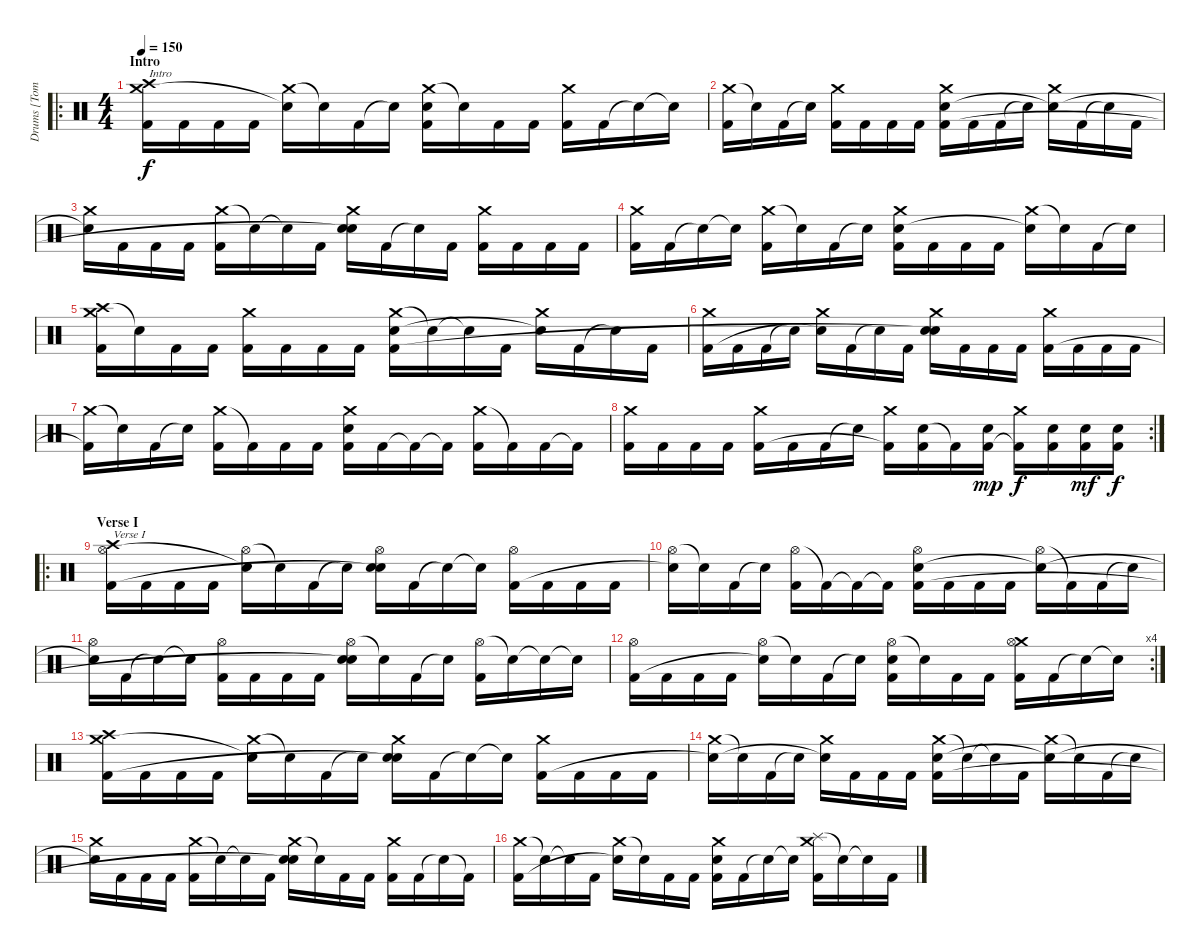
\track ("Drums [Tomas Haake]" "Drums [Tom") {instrument percussion}
\staff {score}
\articulation defaults
\ro
\ts (4 4)
\section ("" "Intro")
\tempo 150
\clef neutral
\ks c
("Crash high (hit)" "Crash medium (hit)" "Kick (hit) 2").16{txt "Intro" dy f} "Kick (hit) 2".16 "Kick (hit) 2".16 "Kick (hit) 2".16 ("Crash medium (hit)" "Snare (hit)"{t}).16 "Snare (hit)"{t}.16 "Kick (hit) 2".16 "Snare (hit)"{t}.16 ("Crash medium (hit)" "Electric Snare (hit)" "Kick (hit) 2").16 "Snare (hit)"{t}.16 "Kick (hit) 2".16 "Kick (hit) 2".16 ("Crash medium (hit)" "Kick (hit) 2").16 "Kick (hit) 2".16 "Snare (hit)"{t}.16 "Snare (hit)"{t}.16 |
("Crash medium (hit)" "Kick (hit) 2").16 "Snare (hit)"{t}.16 "Kick (hit) 2".16 "Snare (hit)"{t}.16 ("Crash medium (hit)" "Kick (hit) 2").16 "Kick (hit) 2".16 "Kick (hit) 2".16 "Kick (hit) 2".16 ("Crash medium (hit)" "Electric Snare (hit)" "Kick (hit) 2").16 "Kick (hit) 2".16 "Kick (hit) 2".16 "Snare (hit)"{t}.16 ("Crash medium (hit)" "Snare (hit)"{t}).16 "Kick (hit) 2".16 "Snare (hit)"{t}.16 "Kick (hit) 2".16 |
("Crash medium (hit)" "Snare (hit)"{t}).16 "Kick (hit) 2".16 "Kick (hit) 2".16 "Kick (hit) 2".16 ("Crash medium (hit)" "Kick (hit) 2").16 "Snare (hit)"{t}.16 "Snare (hit)"{t}.16 "Kick (hit) 2".16 ("Crash medium (hit)" "Electric Snare (hit)" "Snare (hit)"{t}).16 "Kick (hit) 2".16 "Snare (hit)"{t}.16 "Kick (hit) 2".16 ("Crash medium (hit)" "Kick (hit) 2").16 "Kick (hit) 2".16 "Kick (hit) 2".16 "Kick (hit) 2".16 |
("Crash medium (hit)" "Kick (hit) 2").16 "Kick (hit) 2".16 "Snare (hit)"{t}.16 "Snare (hit)"{t}.16 ("Crash medium (hit)" "Kick (hit) 2").16 "Snare (hit)"{t}.16 "Kick (hit) 2".16 "Snare (hit)"{t}.16 ("Crash medium (hit)" "Electric Snare (hit)" "Kick (hit) 2").16 "Kick (hit) 2".16 "Kick (hit) 2".16 "Kick (hit) 2".16 ("Crash medium (hit)" "Snare (hit)"{t}).16 "Snare (hit)"{t}.16 "Kick (hit) 2".16 "Snare (hit)"{t}.16 |
("Crash high (hit)" "Crash medium (hit)" "Kick (hit) 2").16 "Snare (hit)"{t}.16 "Kick (hit) 2".16 "Kick (hit) 2".16 ("Crash medium (hit)" "Kick (hit) 2").16 "Kick (hit) 2".16 "Kick (hit) 2".16 "Kick (hit) 2".16 ("Crash medium (hit)" "Electric Snare (hit)" "Kick (hit) 2").16 "Snare (hit)"{t}.16 "Snare (hit)"{t}.16 "Kick (hit) 2".16 ("Crash medium (hit)" "Snare (hit)"{t}).16 "Kick (hit) 2".16 "Snare (hit)"{t}.16 "Kick (hit) 2".16 |
("Crash medium (hit)" "Kick (hit) 2").16 "Kick (hit) 2".16 "Kick (hit) 2".16 "Snare (hit)"{t}.16 ("Crash medium (hit)" "Snare (hit)"{t}).16 "Kick (hit) 2".16 "Snare (hit)"{t}.16 "Kick (hit) 2".16 ("Crash medium (hit)" "Electric Snare (hit)" "Snare (hit)"{t}).16 "Kick (hit) 2".16 "Kick (hit) 2".16 "Kick (hit) 2".16 ("Crash medium (hit)" "Kick (hit) 2").16 "Kick (hit) 2".16 "Kick (hit) 2".16 "Kick (hit) 2".16 |
("Crash medium (hit)" "Kick (hit) 2"{t}).16 "Snare (hit)"{t}.16 "Kick (hit) 2".16 "Snare (hit)"{t}.16 ("Crash medium (hit)" "Kick (hit) 2").16 "Kick (hit) 2"{t}.16 "Kick (hit) 2".16 "Kick (hit) 2".16 ("Crash medium (hit)" "Electric Snare (hit)" "Kick (hit) 2").16 "Kick (hit) 2".16 "Kick (hit) 2"{t}.16 "Kick (hit) 2"{t}.16 ("Crash medium (hit)" "Kick (hit) 2").16 "Kick (hit) 2"{t}.16 "Kick (hit) 2".16 "Kick (hit) 2"{t}.16 |
\rc 2
("Crash medium (hit)" "Kick (hit) 2").16 "Kick (hit) 2".16 "Kick (hit) 2".16 "Kick (hit) 2".16 ("Crash medium (hit)" "Kick (hit) 2").16 "Kick (hit) 2".16 "Kick (hit) 2".16 "Snare (hit)"{t}.16 ("Crash medium (hit)" "Kick (hit) 2"{t}).16 ("Electric Snare (hit)" "Kick (hit) 2").16 "Kick (hit) 2"{t}.16 ("Electric Snare (hit)" "Kick (hit) 2").16{dy mp} ("Crash medium (hit)" "Kick (hit) 2"{t}).16{dy f} ("Electric Snare (hit)" "Kick (hit) 2").16 ("Electric Snare (hit)" "Kick (hit) 2").16{dy mf} ("Electric Snare (hit)" "Kick (hit) 2").16{dy f} |
\ro
\section ("" "Verse I")
("Crash high (hit)" "Hi-Hat (open)" "Kick (hit) 2").16{txt "Verse I"} "Kick (hit) 2".16 "Kick (hit) 2".16 "Kick (hit) 2".16 ("Hi-Hat (open)" "Snare (hit)"{t}).16 "Snare (hit)"{t}.16 "Kick (hit) 2".16 "Snare (hit)"{t}.16 ("Hi-Hat (open)" "Electric Snare (hit)" "Snare (hit)"{t}).16 "Kick (hit) 2".16 "Snare (hit)"{t}.16 "Snare (hit)"{t}.16 ("Hi-Hat (open)" "Kick (hit) 2").16 "Kick (hit) 2".16 "Kick (hit) 2".16 "Kick (hit) 2".16 |
("Hi-Hat (open)" "Snare (hit)"{t}).16 "Snare (hit)"{t}.16 "Kick (hit) 2".16 "Snare (hit)"{t}.16 ("Hi-Hat (open)" "Kick (hit) 2").16 "Kick (hit) 2"{t}.16 "Kick (hit) 2"{t}.16 "Kick (hit) 2"{t}.16 ("Hi-Hat (open)" "Electric Snare (hit)" "Kick (hit) 2").16 "Kick (hit) 2".16 "Kick (hit) 2".16 "Kick (hit) 2".16 ("Hi-Hat (open)" "Snare (hit)"{t}).16 "Kick (hit) 2"{t}.16 "Kick (hit) 2".16 "Snare (hit)"{t}.16 |
("Hi-Hat (open)" "Snare (hit)"{t}).16 "Kick (hit) 2".16 "Snare (hit)"{t}.16 "Snare (hit)"{t}.16 ("Hi-Hat (open)" "Kick (hit) 2").16 "Kick (hit) 2".16 "Kick (hit) 2".16 "Kick (hit) 2".16 ("Hi-Hat (open)" "Electric Snare (hit)" "Snare (hit)"{t}).16 "Snare (hit)"{t}.16 "Kick (hit) 2".16 "Snare (hit)"{t}.16 ("Hi-Hat (open)" "Kick (hit) 2").16 "Snare (hit)"{t}.16 "Snare (hit)"{t}.16 "Snare (hit)"{t}.16 |
\rc 4
("Hi-Hat (open)" "Kick (hit) 2").16 "Kick (hit) 2".16 "Kick (hit) 2".16 "Kick (hit) 2".16 ("Hi-Hat (open)" "Snare (hit)"{t}).16 "Snare (hit)"{t}.16 "Kick (hit) 2".16 "Snare (hit)"{t}.16 ("Hi-Hat (open)" "Electric Snare (hit)" "Kick (hit) 2").16 "Snare (hit)"{t}.16 "Kick (hit) 2".16 "Kick (hit) 2".16 ("Crash medium (hit)" "Hi-Hat (open)" "Kick (hit) 2").16 "Kick (hit) 2".16 "Snare (hit)"{t}.16 "Snare (hit)"{t}.16 |
("Crash high (hit)" "Crash medium (hit)" "Kick (hit) 2").16 "Kick (hit) 2".16 "Kick (hit) 2".16 "Kick (hit) 2".16 ("Crash medium (hit)" "Snare (hit)"{t}).16 "Snare (hit)"{t}.16 "Kick (hit) 2".16 "Snare (hit)"{t}.16 ("Crash medium (hit)" "Electric Snare (hit)" "Snare (hit)"{t}).16 "Kick (hit) 2".16 "Snare (hit)"{t}.16 "Snare (hit)"{t}.16 ("Crash medium (hit)" "Kick (hit) 2").16 "Kick (hit) 2".16 "Kick (hit) 2".16 "Kick (hit) 2".16 |
("Crash medium (hit)" "Snare (hit)"{t}).16 "Snare (hit)"{t}.16 "Kick (hit) 2".16 "Snare (hit)"{t}.16 ("Crash medium (hit)" "Snare (hit)"{t}).16 "Kick (hit) 2".16 "Kick (hit) 2".16 "Kick (hit) 2".16 ("Crash medium (hit)" "Electric Snare (hit)" "Kick (hit) 2").16 "Snare (hit)"{t}.16 "Snare (hit)"{t}.16 "Kick (hit) 2".16 ("Crash medium (hit)" "Snare (hit)"{t}).16 "Snare (hit)"{t}.16 "Kick (hit) 2".16 "Snare (hit)"{t}.16 |
("Crash medium (hit)" "Snare (hit)"{t}).16 "Kick (hit) 2".16 "Kick (hit) 2".16 "Kick (hit) 2".16 ("Crash medium (hit)" "Kick (hit) 2").16 "Snare (hit)"{t}.16 "Snare (hit)"{t}.16 "Kick (hit) 2".16 ("Crash medium (hit)" "Electric Snare (hit)" "Snare (hit)"{t}).16 "Snare (hit)"{t}.16 "Kick (hit) 2".16 "Kick (hit) 2".16 ("Crash medium (hit)" "Kick (hit) 2").16 "Kick (hit) 2".16 "Snare (hit)"{t}.16 "Kick (hit) 2"{t}.16 |
("Crash medium (hit)" "Kick (hit) 2").16 "Snare (hit)"{t}.16 "Snare (hit)"{t}.16 "Kick (hit) 2".16 ("Crash medium (hit)" "Snare (hit)"{t}).16 "Snare (hit)"{t}.16 "Kick (hit) 2".16 "Kick (hit) 2".16 ("Crash medium (hit)" "Electric Snare (hit)" "Kick (hit) 2").16 "Kick (hit) 2".16 "Snare (hit)"{t}.16 "Snare (hit)"{t}.16 ("Splash (hit)" "Crash medium (hit)" "Kick (hit) 2").16 "Snare (hit)"{t}.16 "Snare (hit)"{t}.16 "Kick (hit) 2".16
